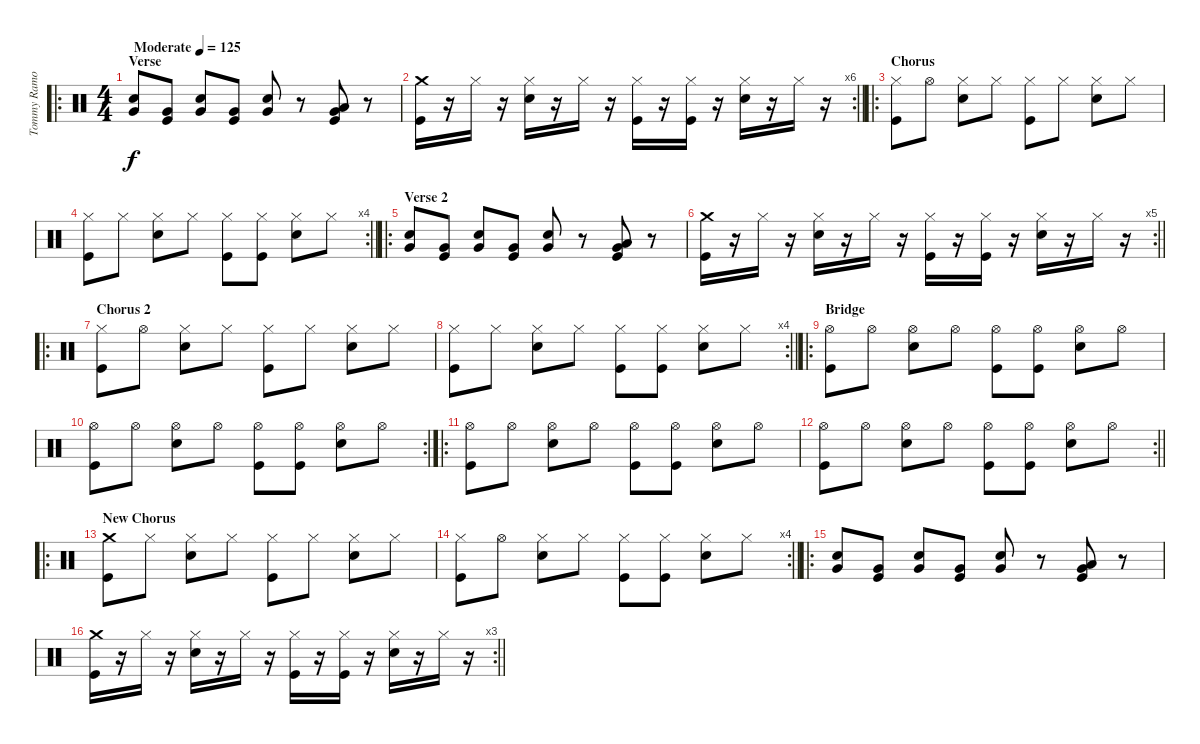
\track ("Tommy Ramone" "Tommy Ramo") {instrument percussion}
\staff {score}
\articulation defaults
\ro
\ts (4 4)
\section ("" "Verse")
\tempo (125 "Moderate")
\clef neutral
\ks c
("Very Low Tom (hit)" "Snare (hit) 2").8{dy f} ("Very Low Tom (hit)" "Kick (hit)").8 ("Very Low Tom (hit)" "Snare (hit) 2").8 ("Very Low Tom (hit)" "Kick (hit)").8 ("Very Low Tom (hit)" "Snare (hit) 2").8 r.8 ("Low Tom (hit)" "Very Low Tom (hit)" "Kick (hit)").8 r.8 |
\rc 6
\barLineRight lightlight
("Crash medium (hit)" "Kick (hit)").16 r.16 "Hi-Hat (closed)".16 r.16 ("Hi-Hat (closed)" "Snare (hit) 2").16 r.16 "Hi-Hat (closed)".16 r.16 ("Hi-Hat (closed)" "Kick (hit)").16 r.16 ("Hi-Hat (closed)" "Kick (hit)").16 r.16 ("Hi-Hat (closed)" "Snare (hit) 2").16 r.16 "Hi-Hat (closed)".16 r.16 |
\ro
\section ("" "Chorus")
("Hi-Hat (closed)" "Kick (hit)").8 "Hi-Hat (open)".8 ("Hi-Hat (closed)" "Snare (hit) 2").8 "Hi-Hat (closed)".8 ("Hi-Hat (closed)" "Kick (hit)").8 "Hi-Hat (closed)".8 ("Hi-Hat (closed)" "Snare (hit) 2").8 "Hi-Hat (closed)".8 |
\rc 4
\barLineRight lightlight
("Hi-Hat (closed)" "Kick (hit)").8 "Hi-Hat (closed)".8 ("Hi-Hat (closed)" "Snare (hit) 2").8 "Hi-Hat (closed)".8 ("Hi-Hat (closed)" "Kick (hit)").8 ("Hi-Hat (closed)" "Kick (hit)").8 ("Hi-Hat (closed)" "Snare (hit) 2").8 "Hi-Hat (closed)".8 |
\ro
\section ("" "Verse 2")
("Very Low Tom (hit)" "Snare (hit) 2").8 ("Very Low Tom (hit)" "Kick (hit)").8 ("Very Low Tom (hit)" "Snare (hit) 2").8 ("Very Low Tom (hit)" "Kick (hit)").8 ("Very Low Tom (hit)" "Snare (hit) 2").8 r.8 ("Low Tom (hit)" "Very Low Tom (hit)" "Kick (hit)").8 r.8 |
\rc 5
\barLineRight lightlight
("Crash medium (hit)" "Kick (hit)").16 r.16 "Hi-Hat (closed)".16 r.16 ("Hi-Hat (closed)" "Snare (hit) 2").16 r.16 "Hi-Hat (closed)".16 r.16 ("Hi-Hat (closed)" "Kick (hit)").16 r.16 ("Hi-Hat (closed)" "Kick (hit)").16 r.16 ("Hi-Hat (closed)" "Snare (hit) 2").16 r.16 "Hi-Hat (closed)".16 r.16 |
\ro
\section ("" "Chorus 2")
("Hi-Hat (closed)" "Kick (hit)").8 "Hi-Hat (open)".8 ("Hi-Hat (closed)" "Snare (hit) 2").8 "Hi-Hat (closed)".8 ("Hi-Hat (closed)" "Kick (hit)").8 "Hi-Hat (closed)".8 ("Hi-Hat (closed)" "Snare (hit) 2").8 "Hi-Hat (closed)".8 |
\rc 4
\barLineRight lightlight
("Hi-Hat (closed)" "Kick (hit)").8 "Hi-Hat (closed)".8 ("Hi-Hat (closed)" "Snare (hit) 2").8 "Hi-Hat (closed)".8 ("Hi-Hat (closed)" "Kick (hit)").8 ("Hi-Hat (closed)" "Kick (hit)").8 ("Hi-Hat (closed)" "Snare (hit) 2").8 "Hi-Hat (closed)".8 |
\ro
\section ("" "Bridge")
("Hi-Hat (open)" "Kick (hit)").8 "Hi-Hat (open)".8 ("Hi-Hat (open)" "Snare (hit) 2").8 "Hi-Hat (open)".8 ("Hi-Hat (open)" "Kick (hit)").8 ("Hi-Hat (open)" "Kick (hit)").8 ("Hi-Hat (open)" "Snare (hit) 2").8 "Hi-Hat (open)".8 |
\rc 2
("Hi-Hat (open)" "Kick (hit)").8 "Hi-Hat (open)".8 ("Hi-Hat (open)" "Snare (hit) 2").8 "Hi-Hat (open)".8 ("Hi-Hat (open)" "Kick (hit)").8 ("Hi-Hat (open)" "Kick (hit)").8 ("Hi-Hat (open)" "Snare (hit) 2").8 "Hi-Hat (open)".8 |
\ro
("Hi-Hat (open)" "Kick (hit)").8 "Hi-Hat (open)".8 ("Hi-Hat (open)" "Snare (hit) 2").8 "Hi-Hat (open)".8 ("Hi-Hat (open)" "Kick (hit)").8 ("Hi-Hat (open)" "Kick (hit)").8 ("Hi-Hat (open)" "Snare (hit) 2").8 "Hi-Hat (open)".8 |
\rc 2
\barLineRight lightlight
("Hi-Hat (open)" "Kick (hit)").8 "Hi-Hat (open)".8 ("Hi-Hat (open)" "Snare (hit) 2").8 "Hi-Hat (open)".8 ("Hi-Hat (open)" "Kick (hit)").8 ("Hi-Hat (open)" "Kick (hit)").8 ("Hi-Hat (open)" "Snare (hit) 2").8 "Hi-Hat (open)".8 |
\ro
\section ("" "New Chorus")
("Crash medium (hit)" "Kick (hit)").8 "Hi-Hat (closed)".8 ("Hi-Hat (closed)" "Snare (hit) 2").8 "Hi-Hat (closed)".8 ("Hi-Hat (closed)" "Kick (hit)").8 "Hi-Hat (closed)".8 ("Hi-Hat (closed)" "Snare (hit) 2").8 "Hi-Hat (closed)".8 |
\rc 4
\barLineRight lightlight
("Hi-Hat (closed)" "Kick (hit)").8 "Hi-Hat (open)".8 ("Hi-Hat (closed)" "Snare (hit) 2").8 "Hi-Hat (closed)".8 ("Hi-Hat (closed)" "Kick (hit)").8 ("Hi-Hat (closed)" "Kick (hit)").8 ("Hi-Hat (closed)" "Snare (hit) 2").8 "Hi-Hat (closed)".8 |
\ro
("Very Low Tom (hit)" "Snare (hit) 2").8 ("Very Low Tom (hit)" "Kick (hit)").8 ("Very Low Tom (hit)" "Snare (hit) 2").8 ("Very Low Tom (hit)" "Kick (hit)").8 ("Very Low Tom (hit)" "Snare (hit) 2").8 r.8 ("Low Tom (hit)" "Very Low Tom (hit)" "Kick (hit)").8 r.8 |
\rc 3
\barLineRight lightlight
("Crash medium (hit)" "Kick (hit)").16 r.16 "Hi-Hat (closed)".16 r.16 ("Hi-Hat (closed)" "Snare (hit) 2").16 r.16 "Hi-Hat (closed)".16 r.16 ("Hi-Hat (closed)" "Kick (hit)").16 r.16 ("Hi-Hat (closed)" "Kick (hit)").16 r.16 ("Hi-Hat (closed)" "Snare (hit) 2").16 r.16 "Hi-Hat (closed)".16 r.16
